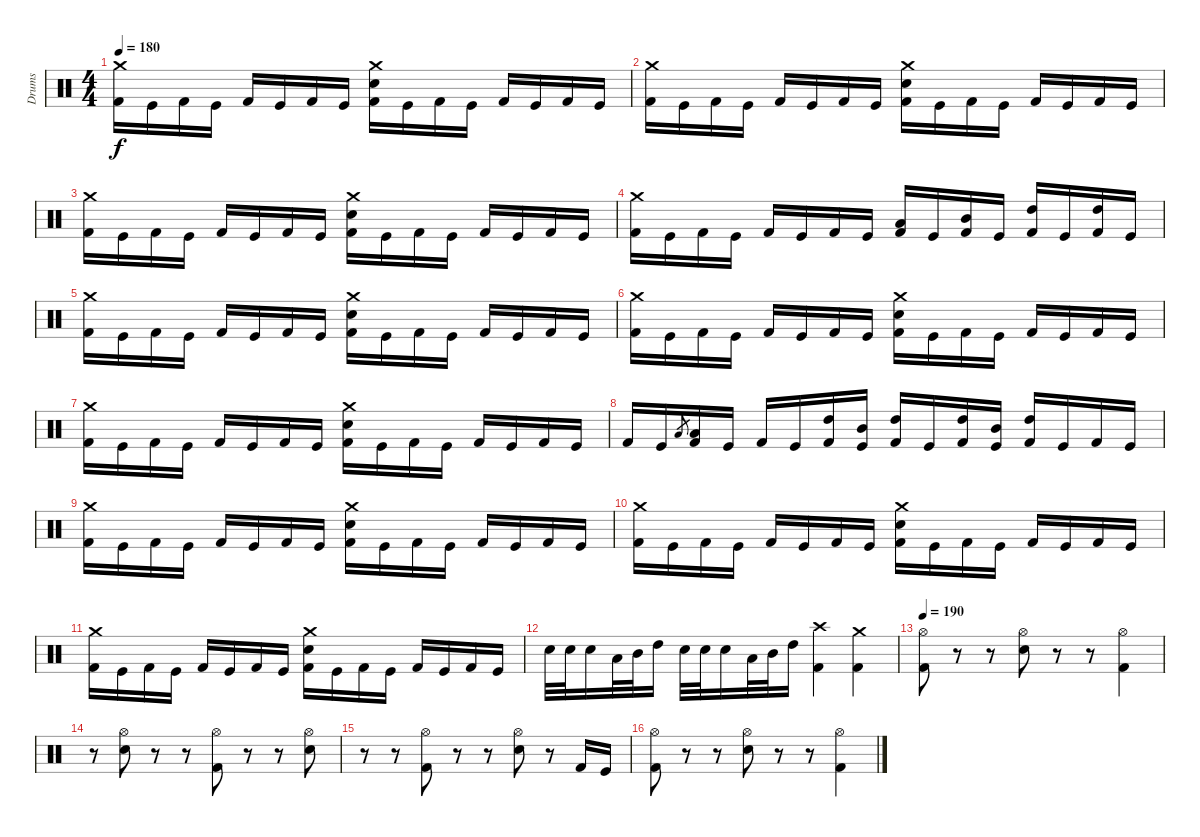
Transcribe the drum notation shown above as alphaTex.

\track ("Drums" "Drums") {instrument percussion}
\staff {score}
\articulation defaults
\ts (4 4)
\tempo 180
\tempo 130
\tempo 180
\clef neutral
\ks c
("Crash medium (hit)" "Kick (hit) 2").16{dy f} "Kick (hit)".16 "Kick (hit) 2".16 "Kick (hit)".16 "Kick (hit) 2".16 "Kick (hit)".16 "Kick (hit) 2".16 "Kick (hit)".16 ("Crash medium (hit)" "Electric Snare (hit)" "Kick (hit) 2").16 "Kick (hit)".16 "Kick (hit) 2".16 "Kick (hit)".16 "Kick (hit) 2".16 "Kick (hit)".16 "Kick (hit) 2".16 "Kick (hit)".16 |
("Crash medium (hit)" "Kick (hit) 2").16 "Kick (hit)".16 "Kick (hit) 2".16 "Kick (hit)".16 "Kick (hit) 2".16 "Kick (hit)".16 "Kick (hit) 2".16 "Kick (hit)".16 ("Crash medium (hit)" "Electric Snare (hit)" "Kick (hit) 2").16 "Kick (hit)".16 "Kick (hit) 2".16 "Kick (hit)".16 "Kick (hit) 2".16 "Kick (hit)".16 "Kick (hit) 2".16 "Kick (hit)".16 |
("Crash medium (hit)" "Kick (hit) 2").16 "Kick (hit)".16 "Kick (hit) 2".16 "Kick (hit)".16 "Kick (hit) 2".16 "Kick (hit)".16 "Kick (hit) 2".16 "Kick (hit)".16 ("Crash medium (hit)" "Electric Snare (hit)" "Kick (hit) 2").16 "Kick (hit)".16 "Kick (hit) 2".16 "Kick (hit)".16 "Kick (hit) 2".16 "Kick (hit)".16 "Kick (hit) 2".16 "Kick (hit)".16 |
("Crash medium (hit)" "Kick (hit) 2").16 "Kick (hit)".16 "Kick (hit) 2".16 "Kick (hit)".16 "Kick (hit) 2".16 "Kick (hit)".16 "Kick (hit) 2".16 "Kick (hit)".16 ("Low Tom (hit)" "Kick (hit) 2").16 "Kick (hit)".16 ("Mid Tom (hit)" "Kick (hit) 2").16 "Kick (hit)".16 ("High Tom (hit)" "Kick (hit) 2").16 "Kick (hit)".16 ("High Tom (hit)" "Kick (hit) 2").16 "Kick (hit)".16 |
("Crash medium (hit)" "Kick (hit) 2").16 "Kick (hit)".16 "Kick (hit) 2".16 "Kick (hit)".16 "Kick (hit) 2".16 "Kick (hit)".16 "Kick (hit) 2".16 "Kick (hit)".16 ("Crash medium (hit)" "Electric Snare (hit)" "Kick (hit) 2").16 "Kick (hit)".16 "Kick (hit) 2".16 "Kick (hit)".16 "Kick (hit) 2".16 "Kick (hit)".16 "Kick (hit) 2".16 "Kick (hit)".16 |
("Crash medium (hit)" "Kick (hit) 2").16 "Kick (hit)".16 "Kick (hit) 2".16 "Kick (hit)".16 "Kick (hit) 2".16 "Kick (hit)".16 "Kick (hit) 2".16 "Kick (hit)".16 ("Crash medium (hit)" "Electric Snare (hit)" "Kick (hit) 2").16 "Kick (hit)".16 "Kick (hit) 2".16 "Kick (hit)".16 "Kick (hit) 2".16 "Kick (hit)".16 "Kick (hit) 2".16 "Kick (hit)".16 |
("Crash medium (hit)" "Kick (hit) 2").16 "Kick (hit)".16 "Kick (hit) 2".16 "Kick (hit)".16 "Kick (hit) 2".16 "Kick (hit)".16 "Kick (hit) 2".16 "Kick (hit)".16 ("Crash medium (hit)" "Electric Snare (hit)" "Kick (hit) 2").16 "Kick (hit)".16 "Kick (hit) 2".16 "Kick (hit)".16 "Kick (hit) 2".16 "Kick (hit)".16 "Kick (hit) 2".16 "Kick (hit)".16 |
"Kick (hit) 2".16 "Kick (hit)".16 "Low Tom (hit)".8{gr} ("Low Tom (hit)" "Kick (hit) 2").16 "Kick (hit)".16 "Kick (hit) 2".16 "Kick (hit)".16 ("High Tom (hit)" "Kick (hit) 2").16 ("Mid Tom (hit)" "Kick (hit)").16 ("High Tom (hit)" "Kick (hit) 2").16 "Kick (hit)".16 ("High Tom (hit)" "Kick (hit) 2").16 ("Mid Tom (hit)" "Kick (hit)").16 ("High Tom (hit)" "Kick (hit) 2").16 "Kick (hit)".16 "Kick (hit) 2".16 "Kick (hit)".16 |
("Crash medium (hit)" "Kick (hit) 2").16 "Kick (hit)".16 "Kick (hit) 2".16 "Kick (hit)".16 "Kick (hit) 2".16 "Kick (hit)".16 "Kick (hit) 2".16 "Kick (hit)".16 ("Crash medium (hit)" "Electric Snare (hit)" "Kick (hit) 2").16 "Kick (hit)".16 "Kick (hit) 2".16 "Kick (hit)".16 "Kick (hit) 2".16 "Kick (hit)".16 "Kick (hit) 2".16 "Kick (hit)".16 |
("Crash medium (hit)" "Kick (hit) 2").16 "Kick (hit)".16 "Kick (hit) 2".16 "Kick (hit)".16 "Kick (hit) 2".16 "Kick (hit)".16 "Kick (hit) 2".16 "Kick (hit)".16 ("Crash medium (hit)" "Electric Snare (hit)" "Kick (hit) 2").16 "Kick (hit)".16 "Kick (hit) 2".16 "Kick (hit)".16 "Kick (hit) 2".16 "Kick (hit)".16 "Kick (hit) 2".16 "Kick (hit)".16 |
("Crash medium (hit)" "Kick (hit) 2").16 "Kick (hit)".16 "Kick (hit) 2".16 "Kick (hit)".16 "Kick (hit) 2".16 "Kick (hit)".16 "Kick (hit) 2".16 "Kick (hit)".16 ("Crash medium (hit)" "Electric Snare (hit)" "Kick (hit) 2").16 "Kick (hit)".16 "Kick (hit) 2".16 "Kick (hit)".16 "Kick (hit) 2".16 "Kick (hit)".16 "Kick (hit) 2".16 "Kick (hit)".16 |
"Electric Snare (hit)".32 "Electric Snare (hit)".32 "Electric Snare (hit)".16 "Low Tom (hit)".32 "Mid Tom (hit)".32 "High Tom (hit)".16 "Electric Snare (hit)".32 "Electric Snare (hit)".32 "Electric Snare (hit)".16 "Low Tom (hit)".32 "Mid Tom (hit)".32 "High Tom (hit)".16 ("Crash high (hit)" "Kick (hit) 2").4 ("Crash medium (hit)" "Kick (hit) 2").4 |
\tempo 190
("Hi-Hat (open)" "Kick (hit) 2").8 r.8 r.8 ("Hi-Hat (open)" "Electric Snare (hit)").8 r.8 r.8 ("Hi-Hat (open)" "Kick (hit) 2").4 |
r.8 ("Hi-Hat (open)" "Electric Snare (hit)").8 r.8 r.8 ("Hi-Hat (open)" "Kick (hit) 2").8 r.8 r.8 ("Hi-Hat (open)" "Electric Snare (hit)").8 |
r.8 r.8 ("Hi-Hat (open)" "Kick (hit) 2").8 r.8 r.8 ("Hi-Hat (open)" "Electric Snare (hit)").8 r.8 "Kick (hit) 2".16 "Kick (hit)".16 |
("Hi-Hat (open)" "Kick (hit) 2").8 r.8 r.8 ("Hi-Hat (open)" "Electric Snare (hit)").8 r.8 r.8 ("Hi-Hat (open)" "Kick (hit) 2").4
